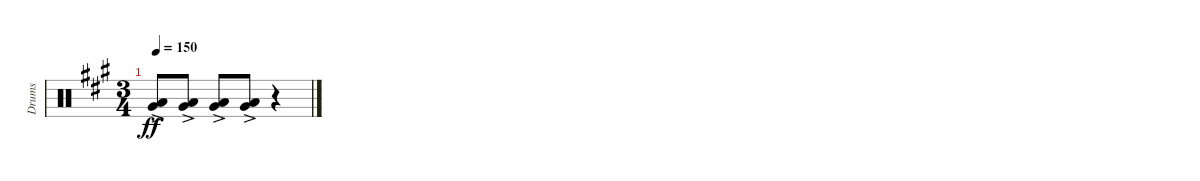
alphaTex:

\track ("Drums" "Drums") {instrument percussion}
\staff {score}
\articulation defaults
\ts (3 4)
\tempo 150
\clef neutral
\ks f#minor
("Very Low Tom (hit)"{ac} "Low Floor Tom (hit)"{ac}).8{dy ff} ("Very Low Tom (hit)"{ac} "Low Floor Tom (hit)"{ac}).8 ("Very Low Tom (hit)"{ac} "Low Floor Tom (hit)"{ac}).8 ("Very Low Tom (hit)"{ac} "Low Floor Tom (hit)"{ac}).8 r.4
